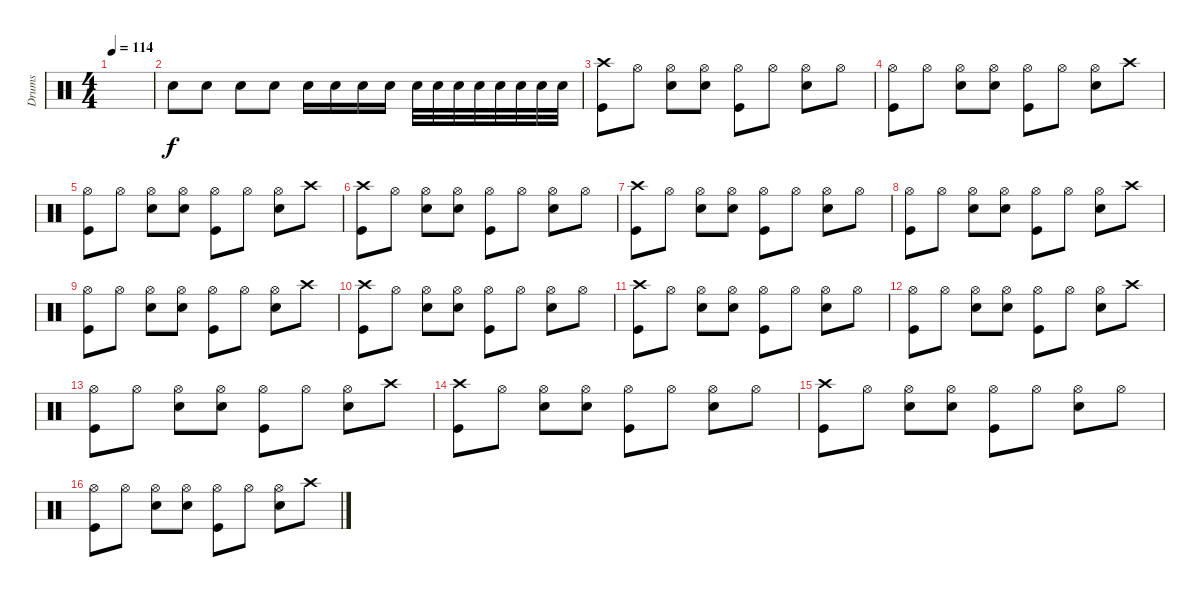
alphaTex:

\track ("Drums" "Drums") {instrument percussion}
\staff {score}
\articulation defaults
\ts (4 4)
\tempo 114
\clef neutral
\ks c
|
"Snare (hit) 2".8 "Snare (hit) 2".8 "Snare (hit) 2".8 "Snare (hit) 2".8 "Snare (hit) 2".16 "Snare (hit) 2".16 "Snare (hit) 2".16 "Snare (hit) 2".16 "Snare (hit) 2".32 "Snare (hit) 2".32 "Snare (hit) 2".32 "Snare (hit) 2".32 "Snare (hit) 2".32 "Snare (hit) 2".32 "Snare (hit) 2".32 "Snare (hit) 2".32 |
("Crash high (hit)" "Kick (hit)").8 "Hi-Hat (open)".8 ("Hi-Hat (open)" "Snare (hit) 2").8 ("Hi-Hat (open)" "Snare (hit) 2").8 ("Hi-Hat (open)" "Kick (hit)").8 "Hi-Hat (open)".8 ("Hi-Hat (open)" "Snare (hit) 2").8 "Hi-Hat (open)".8 |
("Hi-Hat (open)" "Kick (hit)").8 "Hi-Hat (open)".8 ("Hi-Hat (open)" "Snare (hit) 2").8 ("Hi-Hat (open)" "Snare (hit) 2").8 ("Hi-Hat (open)" "Kick (hit)").8 "Hi-Hat (open)".8 ("Hi-Hat (open)" "Snare (hit) 2").8 "Crash high (hit)".8 |
("Hi-Hat (open)" "Kick (hit)").8 "Hi-Hat (open)".8 ("Hi-Hat (open)" "Snare (hit) 2").8 ("Hi-Hat (open)" "Snare (hit) 2").8 ("Hi-Hat (open)" "Kick (hit)").8 "Hi-Hat (open)".8 ("Hi-Hat (open)" "Snare (hit) 2").8 "Crash high (hit)".8 |
("Crash high (hit)" "Kick (hit)").8 "Hi-Hat (open)".8 ("Hi-Hat (open)" "Snare (hit) 2").8 ("Hi-Hat (open)" "Snare (hit) 2").8 ("Hi-Hat (open)" "Kick (hit)").8 "Hi-Hat (open)".8 ("Hi-Hat (open)" "Snare (hit) 2").8 "Hi-Hat (open)".8 |
("Crash high (hit)" "Kick (hit)").8 "Hi-Hat (open)".8 ("Hi-Hat (open)" "Snare (hit) 2").8 ("Hi-Hat (open)" "Snare (hit) 2").8 ("Hi-Hat (open)" "Kick (hit)").8 "Hi-Hat (open)".8 ("Hi-Hat (open)" "Snare (hit) 2").8 "Hi-Hat (open)".8 |
("Hi-Hat (open)" "Kick (hit)").8 "Hi-Hat (open)".8 ("Hi-Hat (open)" "Snare (hit) 2").8 ("Hi-Hat (open)" "Snare (hit) 2").8 ("Hi-Hat (open)" "Kick (hit)").8 "Hi-Hat (open)".8 ("Hi-Hat (open)" "Snare (hit) 2").8 "Crash high (hit)".8 |
("Hi-Hat (open)" "Kick (hit)").8 "Hi-Hat (open)".8 ("Hi-Hat (open)" "Snare (hit) 2").8 ("Hi-Hat (open)" "Snare (hit) 2").8 ("Hi-Hat (open)" "Kick (hit)").8 "Hi-Hat (open)".8 ("Hi-Hat (open)" "Snare (hit) 2").8 "Crash high (hit)".8 |
("Crash high (hit)" "Kick (hit)").8 "Hi-Hat (open)".8 ("Hi-Hat (open)" "Snare (hit) 2").8 ("Hi-Hat (open)" "Snare (hit) 2").8 ("Hi-Hat (open)" "Kick (hit)").8 "Hi-Hat (open)".8 ("Hi-Hat (open)" "Snare (hit) 2").8 "Hi-Hat (open)".8 |
("Crash high (hit)" "Kick (hit)").8 "Hi-Hat (open)".8 ("Hi-Hat (open)" "Snare (hit) 2").8 ("Hi-Hat (open)" "Snare (hit) 2").8 ("Hi-Hat (open)" "Kick (hit)").8 "Hi-Hat (open)".8 ("Hi-Hat (open)" "Snare (hit) 2").8 "Hi-Hat (open)".8 |
("Hi-Hat (open)" "Kick (hit)").8 "Hi-Hat (open)".8 ("Hi-Hat (open)" "Snare (hit) 2").8 ("Hi-Hat (open)" "Snare (hit) 2").8 ("Hi-Hat (open)" "Kick (hit)").8 "Hi-Hat (open)".8 ("Hi-Hat (open)" "Snare (hit) 2").8 "Crash high (hit)".8 |
("Hi-Hat (open)" "Kick (hit)").8 "Hi-Hat (open)".8 ("Hi-Hat (open)" "Snare (hit) 2").8 ("Hi-Hat (open)" "Snare (hit) 2").8 ("Hi-Hat (open)" "Kick (hit)").8 "Hi-Hat (open)".8 ("Hi-Hat (open)" "Snare (hit) 2").8 "Crash high (hit)".8 |
("Crash high (hit)" "Kick (hit)").8 "Hi-Hat (open)".8 ("Hi-Hat (open)" "Snare (hit) 2").8 ("Hi-Hat (open)" "Snare (hit) 2").8 ("Hi-Hat (open)" "Kick (hit)").8 "Hi-Hat (open)".8 ("Hi-Hat (open)" "Snare (hit) 2").8 "Hi-Hat (open)".8 |
("Crash high (hit)" "Kick (hit)").8 "Hi-Hat (open)".8 ("Hi-Hat (open)" "Snare (hit) 2").8 ("Hi-Hat (open)" "Snare (hit) 2").8 ("Hi-Hat (open)" "Kick (hit)").8 "Hi-Hat (open)".8 ("Hi-Hat (open)" "Snare (hit) 2").8 "Hi-Hat (open)".8 |
("Hi-Hat (open)" "Kick (hit)").8 "Hi-Hat (open)".8 ("Hi-Hat (open)" "Snare (hit) 2").8 ("Hi-Hat (open)" "Snare (hit) 2").8 ("Hi-Hat (open)" "Kick (hit)").8 "Hi-Hat (open)".8 ("Hi-Hat (open)" "Snare (hit) 2").8 "Crash high (hit)".8
